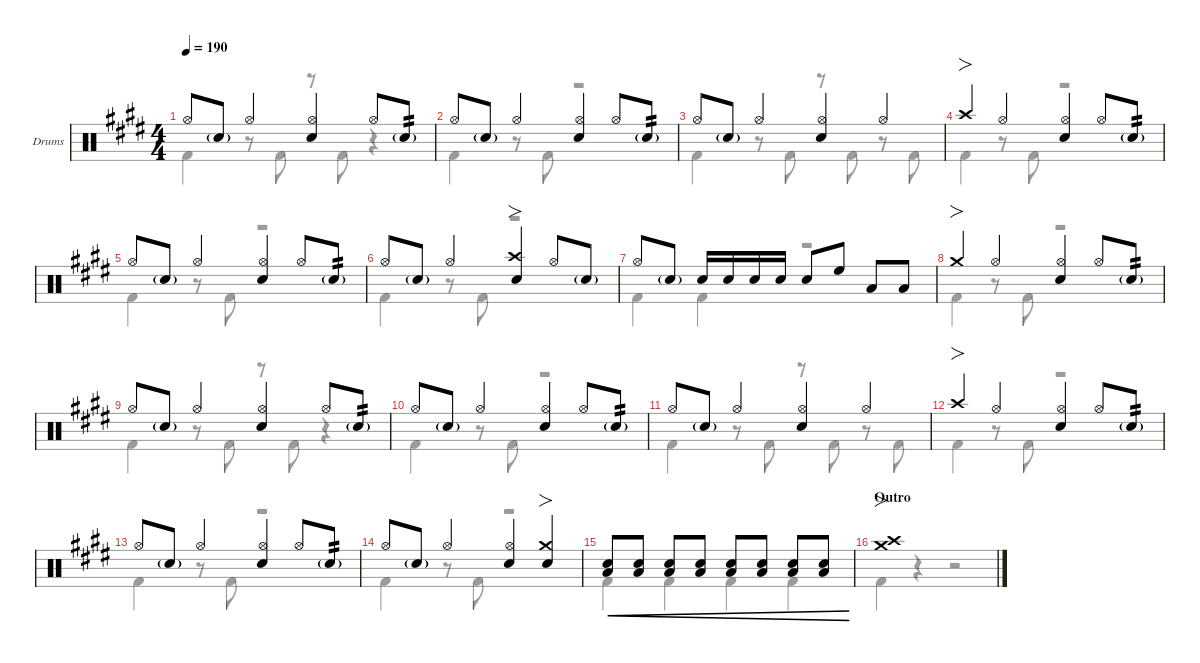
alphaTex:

\defaultSystemsLayout 4
\hideDynamics
\bracketExtendMode nobrackets
\firstSystemTrackNameOrientation horizontal
\track ("Drums" "Drums") {defaultSystemsLayout 4 instrument percussion}
\staff {score}
\articulation defaults
\voice
\ts (4 4)
\tempo 190
\clef neutral
\scale
0.244132
\ks e "Hi-Hat (open)"{acc forcenatural}.8{dy f beam Up} "Snare (hit) 2"{g acc forcenatural}.8{dy mf beam Up} "Hi-Hat (open)"{acc forcenatural}.4{dy f beam Up}
("Hi-Hat (open)"{acc forcenatural} "Snare (hit) 2"{acc forcenatural}).4{beam Up} "Hi-Hat (open)"{acc forcenatural}.8{beam Up} "Snare (hit) 2"{g acc forcenatural}.8{tp 2 dy mf beam Up} |
\scale
0.244132 "Hi-Hat (open)"{acc forcenatural}.8{dy f beam Up} "Snare (hit) 2"{g acc forcenatural}.8{dy mf beam Up} "Hi-Hat (open)"{acc forcenatural}.4{dy f beam Up} ("Hi-Hat (open)"{acc forcenatural} "Snare (hit) 2"{acc forcenatural}).4{beam Up} "Hi-Hat (open)"{acc forcenatural}.8{beam Up} "Snare (hit) 2"{g acc forcenatural}.8{tp 2 dy mf beam Up} |
\scale
0.244132 "Hi-Hat (open)"{acc forcenatural}.8{dy f beam Up} "Snare (hit) 2"{g acc forcenatural}.8{dy mf beam Up} "Hi-Hat (open)"{acc forcenatural}.4{dy f beam Up} ("Hi-Hat (open)"{acc forcenatural} "Snare (hit) 2"{acc forcenatural}).4{beam Up} "Hi-Hat (open)"{acc forcenatural}.4{beam Up} |
\scale
0.267605 "Crash high (hit)"{acc forcenatural}.4{fo beam Up} "Hi-Hat (open)"{acc forcenatural}.4{beam Up} ("Hi-Hat (open)"{acc forcenatural} "Snare (hit) 2"{acc forcenatural}).4{beam Up} "Hi-Hat (open)"{acc forcenatural}.8{beam Up} "Snare (hit) 2"{g acc forcenatural}.8{tp 2 dy mf beam Up} |
\scale
0.244132 "Hi-Hat (open)"{acc forcenatural}.8{dy f beam Up} "Snare (hit) 2"{g acc forcenatural}.8{dy mf beam Up} "Hi-Hat (open)"{acc forcenatural}.4{dy f beam Up} ("Hi-Hat (open)"{acc forcenatural} "Snare (hit) 2"{acc forcenatural}).4{beam Up} "Hi-Hat (open)"{acc forcenatural}.8{beam Up} "Snare (hit) 2"{g acc forcenatural}.8{tp 2 dy mf beam Up} |
\scale
0.244132 "Hi-Hat (open)"{acc forcenatural}.8{dy f beam Up} "Snare (hit) 2"{g acc forcenatural}.8{dy mf beam Up} "Hi-Hat (open)"{acc forcenatural}.4{dy f beam Up} ("Crash high (hit)"{acc forcenatural} "Snare (hit) 2"{acc forcenatural}).4{fo beam Up} "Hi-Hat (open)"{acc forcenatural}.8{beam Up} "Snare (hit) 2"{g acc forcenatural}.8{beam Up} |
\scale
0.244132 "Hi-Hat (open)"{acc forcenatural}.8{beam Up} "Snare (hit) 2"{g acc forcenatural}.8{beam Up beam split} "Snare (hit) 2"{acc forcenatural}.16{beam Up} "Snare (hit) 2"{acc forcenatural}.16{dy mf beam Up} "Snare (hit) 2"{acc forcenatural}.16{dy f beam Up} "Snare (hit) 2"{acc forcenatural}.16{dy mf beam Up} "Snare (hit) 2"{acc forcenatural}.8{dy f beam Up} "High Floor Tom (hit)"{acc forcenatural}.8{beam Up} "Low Tom (hit)"{acc forcenatural}.8{beam Up} "Low Tom (hit)"{acc forcenatural}.8{beam Up} |
\scale
0.267605 "Crash medium (hit)"{acc forcenatural}.4{fo beam Up} "Hi-Hat (open)"{acc forcenatural}.4{beam Up} ("Hi-Hat (open)"{acc forcenatural} "Snare (hit) 2"{acc forcenatural}).4{beam Up} "Hi-Hat (open)"{acc forcenatural}.8{beam Up} "Snare (hit) 2"{g acc forcenatural}.8{tp 2 dy mf beam Up} |
\scale
0.244132 "Hi-Hat (open)"{acc forcenatural}.8{dy f beam Up} "Snare (hit) 2"{g acc forcenatural}.8{dy mf beam Up} "Hi-Hat (open)"{acc forcenatural}.4{dy f beam Up} ("Hi-Hat (open)"{acc forcenatural} "Snare (hit) 2"{acc forcenatural}).4{beam Up} "Hi-Hat (open)"{acc forcenatural}.8{beam Up} "Snare (hit) 2"{g acc forcenatural}.8{tp 2 dy mf beam Up} |
\scale
0.244132 "Hi-Hat (open)"{acc forcenatural}.8{dy f beam Up} "Snare (hit) 2"{g acc forcenatural}.8{dy mf beam Up} "Hi-Hat (open)"{acc forcenatural}.4{dy f beam Up} ("Hi-Hat (open)"{acc forcenatural} "Snare (hit) 2"{acc forcenatural}).4{beam Up} "Hi-Hat (open)"{acc forcenatural}.8{beam Up} "Snare (hit) 2"{g acc forcenatural}.8{tp 2 dy mf beam Up} |
\scale
0.244132 "Hi-Hat (open)"{acc forcenatural}.8{dy f beam Up} "Snare (hit) 2"{g acc forcenatural}.8{dy mf beam Up} "Hi-Hat (open)"{acc forcenatural}.4{dy f beam Up} ("Hi-Hat (open)"{acc forcenatural} "Snare (hit) 2"{acc forcenatural}).4{beam Up} "Hi-Hat (open)"{acc forcenatural}.4{beam Up} |
\scale
0.267605 "Crash high (hit)"{acc forcenatural}.4{fo beam Up} "Hi-Hat (open)"{acc forcenatural}.4{beam Up} ("Hi-Hat (open)"{acc forcenatural} "Snare (hit) 2"{acc forcenatural}).4{beam Up} "Hi-Hat (open)"{acc forcenatural}.8{beam Up} "Snare (hit) 2"{g acc forcenatural}.8{tp 2 dy mf beam Up} |
\scale
0.244132 "Hi-Hat (open)"{acc forcenatural}.8{dy f beam Up} "Snare (hit) 2"{g acc forcenatural}.8{dy mf beam Up} "Hi-Hat (open)"{acc forcenatural}.4{dy f beam Up} ("Hi-Hat (open)"{acc forcenatural} "Snare (hit) 2"{acc forcenatural}).4{beam Up} "Hi-Hat (open)"{acc forcenatural}.8{beam Up} "Snare (hit) 2"{g acc forcenatural}.8{tp 2 dy mf beam Up} |
\scale
0.244132 "Hi-Hat (open)"{acc forcenatural}.8{dy f beam Up} "Snare (hit) 2"{g acc forcenatural}.8{dy mf beam Up} "Hi-Hat (open)"{acc forcenatural}.4{dy f beam Up} ("Hi-Hat (open)"{acc forcenatural} "Snare (hit) 2"{acc forcenatural}).4{beam Up} ("Snare (hit) 2"{acc forcenatural} "Crash medium (hit)"{acc forcenatural}).4{fo beam Up} |
\scale
0.244132 ("Snare (hit) 2"{acc forcenatural} "Low Tom (hit)"{acc forcenatural}).8{cre dy mp beam Up} ("Snare (hit) 2"{acc forcenatural} "Low Tom (hit)"{acc forcenatural}).8{cre beam Up} ("Snare (hit) 2"{acc forcenatural} "Low Tom (hit)"{acc forcenatural}).8{cre dy mf beam Up} ("Snare (hit) 2"{acc forcenatural} "Low Tom (hit)"{acc forcenatural}).8{cre beam Up} ("Snare (hit) 2"{acc forcenatural} "Low Tom (hit)"{acc forcenatural}).8{cre dy f beam Up} ("Snare (hit) 2"{acc forcenatural} "Low Tom (hit)"{acc forcenatural}).8{cre beam Up} ("Snare (hit) 2"{acc forcenatural} "Low Tom (hit)"{acc forcenatural}).8{cre dy ff beam Up} ("Snare (hit) 2"{acc forcenatural} "Low Tom (hit)"{acc forcenatural}).8{cre beam Up} |
\section ("" "Outro")
\scale
0.267605 ("Crash high (hit)"{acc forcenatural} "Crash medium (hit)"{acc forcenatural}).1{fo dy f beam Up}
\voice
\clef neutral
\ottava regular
\simile none
\scale
0.244132
\ks e "Kick (hit) 2"{acc forcenatural}.4{dy f beam Down}
r.8{beam Down} "Kick (hit) 2"{acc forcenatural}.8{beam Down} r.8{beam Down} "Kick (hit) 2"{acc forcenatural}.8{beam Down} r.4{beam Down} |
\scale
0.244132 "Kick (hit) 2"{acc forcenatural}.4{beam Down} r.8{beam Down} "Kick (hit) 2"{acc forcenatural}.8{beam Down} r.2{beam Down} |
\scale
0.244132 "Kick (hit) 2"{acc forcenatural}.4{beam Down} r.8{beam Down} "Kick (hit) 2"{acc forcenatural}.8{beam Down} r.8{beam Down} "Kick (hit) 2"{acc forcenatural}.8{beam Down} r.8{beam Down} "Kick (hit) 2"{acc forcenatural}.8{beam Down} |
\scale
0.267605 "Kick (hit) 2"{acc forcenatural}.4{beam Down} r.8{beam Down} "Kick (hit) 2"{acc forcenatural}.8{beam Down} r.2{beam Down} |
\scale
0.244132 "Kick (hit) 2"{acc forcenatural}.4{beam Down} r.8{beam Down} "Kick (hit) 2"{acc forcenatural}.8{beam Down} r.2{beam Down} |
\scale
0.244132 "Kick (hit) 2"{acc forcenatural}.4{beam Down} r.8{beam Down} "Kick (hit) 2"{acc forcenatural}.8{beam Down} r.2{beam Down} |
\scale
0.244132 "Kick (hit) 2"{acc forcenatural}.4{beam Down} "Kick (hit) 2"{acc forcenatural}.4{beam Down} r.2{beam Down} |
\scale
0.267605 "Kick (hit) 2"{acc forcenatural}.4{beam Down} r.8{beam Down} "Kick (hit) 2"{acc forcenatural}.8{beam Down} r.2{beam Down} |
\scale
0.244132 "Kick (hit) 2"{acc forcenatural}.4{beam Down} r.8{beam Down} "Kick (hit) 2"{acc forcenatural}.8{beam Down} r.8{beam Down} "Kick (hit) 2"{acc forcenatural}.8{beam Down} r.4{beam Down} |
\scale
0.244132 "Kick (hit) 2"{acc forcenatural}.4{beam Down} r.8{beam Down} "Kick (hit) 2"{acc forcenatural}.8{beam Down} r.2{beam Down} |
\scale
0.244132 "Kick (hit) 2"{acc forcenatural}.4{beam Down} r.8{beam Down} "Kick (hit) 2"{acc forcenatural}.8{beam Down} r.8{beam Down} "Kick (hit) 2"{acc forcenatural}.8{beam Down} r.8{beam Down} "Kick (hit) 2"{acc forcenatural}.8{beam Down} |
\scale
0.267605 "Kick (hit) 2"{acc forcenatural}.4{beam Down} r.8{beam Down} "Kick (hit) 2"{acc forcenatural}.8{beam Down} r.2{beam Down} |
\scale
0.244132 "Kick (hit) 2"{acc forcenatural}.4{beam Down} r.8{beam Down} "Kick (hit) 2"{acc forcenatural}.8{beam Down} r.2{beam Down} |
\scale
0.244132 "Kick (hit) 2"{acc forcenatural}.4{beam Down} r.8{beam Down} "Kick (hit) 2"{acc forcenatural}.8{beam Down} r.2{beam Down} |
\scale
0.244132 "Kick (hit) 2"{acc forcenatural}.4{beam Down} "Kick (hit) 2"{acc forcenatural}.4{beam Down} "Kick (hit) 2"{acc forcenatural}.4{beam Down} "Kick (hit) 2"{acc forcenatural}.4{beam Down} |
\scale
0.267605 "Kick (hit) 2"{acc forcenatural}.4{beam Down} r.4{beam Down} r.2{beam Down}
